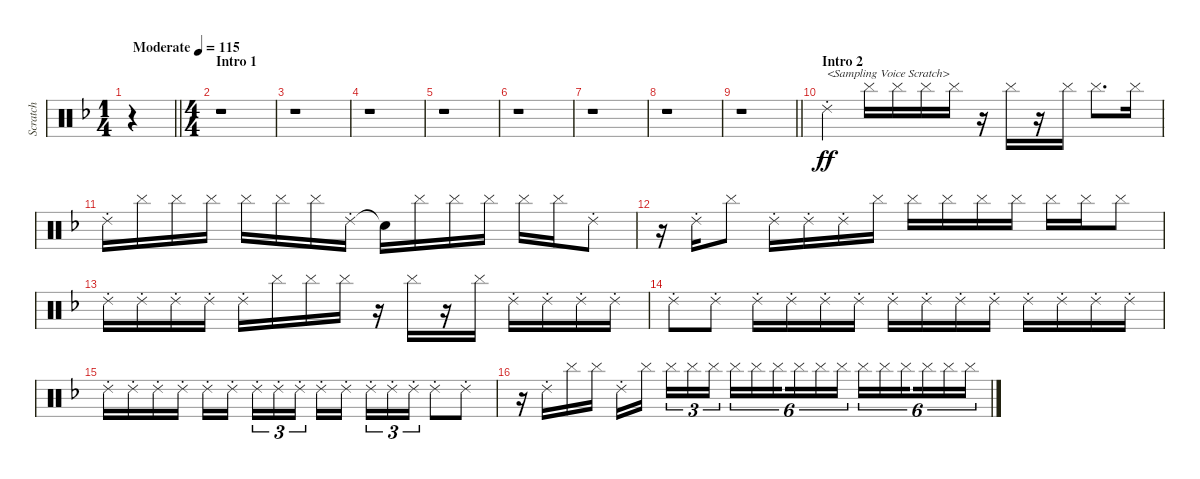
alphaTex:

\track ("Scratch" "Scratch") {instrument percussion}
\staff {score}
\articulation defaults
\ts (1 4)
\tempo (115 "Moderate")
\clef neutral
\barLineRight lightlight
\ks f
r.4{dy ff} |
\ts (4 4)
\section ("" "Intro 1")
r.1 |
r.1 |
r.1 |
r.1 |
r.1 |
r.1 |
r.1 |
\barLineRight lightlight
r.1 |
\section ("" "Intro 2")
"Ride (choke) 2".4{txt "<Sampling Voice Scratch>"} "Cymbal (hit)".16 "Cymbal (hit)".16 "Cymbal (hit)".16 "Cymbal (hit)".16 r.16 "Cymbal (hit)".16 r.16 "Cymbal (hit)".16 "Cymbal (hit)".8{d} "Cymbal (hit)".16 |
"Ride (choke) 2".16 "Cymbal (hit)".16 "Cymbal (hit)".16 "Cymbal (hit)".16 "Cymbal (hit)".16 "Cymbal (hit)".16 "Cymbal (hit)".16 "Ride (choke) 2".16 "Snare (hit)"{t}.16 "Cymbal (hit)".16 "Cymbal (hit)".16 "Cymbal (hit)".16 "Cymbal (hit)".16 "Cymbal (hit)".16 "Ride (choke) 2".8 |
r.16 "Ride (choke) 2".16 "Cymbal (hit)".8 "Ride (choke) 2".16 "Ride (choke) 2".16 "Ride (choke) 2".16 "Cymbal (hit)".16 "Cymbal (hit)".16 "Cymbal (hit)".16 "Cymbal (hit)".16 "Cymbal (hit)".16 "Cymbal (hit)".16 "Cymbal (hit)".16 "Cymbal (hit)".8 |
"Ride (choke) 2".16 "Ride (choke) 2".16 "Ride (choke) 2".16 "Ride (choke) 2".16 "Ride (choke) 2".16 "Cymbal (hit)".16 "Cymbal (hit)".16 "Cymbal (hit)".16 r.16 "Cymbal (hit)".16 r.16 "Cymbal (hit)".16 "Ride (choke) 2".16 "Ride (choke) 2".16 "Ride (choke) 2".16 "Ride (choke) 2".16 |
"Ride (choke) 2".8 "Ride (choke) 2".8 "Ride (choke) 2".16 "Ride (choke) 2".16 "Ride (choke) 2".16 "Ride (choke) 2".16 "Ride (choke) 2".16 "Ride (choke) 2".16 "Ride (choke) 2".16 "Ride (choke) 2".16 "Ride (choke) 2".16 "Ride (choke) 2".16 "Ride (choke) 2".16 "Ride (choke) 2".16 |
"Ride (choke) 2".16 "Ride (choke) 2".16 "Ride (choke) 2".16 "Ride (choke) 2".16 "Ride (choke) 2".16 "Ride (choke) 2".16{beam splitsecondary} "Ride (choke) 2".16{tu (3 2)} "Ride (choke) 2".16{tu (3 2)} "Ride (choke) 2".16{tu (3 2)} "Ride (choke) 2".16 "Ride (choke) 2".16{beam splitsecondary} "Ride (choke) 2".16{tu (3 2)} "Ride (choke) 2".16{tu (3 2)} "Ride (choke) 2".16{tu (3 2)} "Ride (choke) 2".8 "Ride (choke) 2".8 |
r.16 "Ride (choke) 2".16 "Cymbal (hit)".16 "Cymbal (hit)".16 "Ride (choke) 2".16 "Cymbal (hit)".16{beam splitsecondary} "Cymbal (hit)".16{tu (3 2)} "Cymbal (hit)".16{tu (3 2)} "Cymbal (hit)".16{tu (3 2)} "Cymbal (hit)".16{tu (6 4)} "Cymbal (hit)".16{tu (6 4)} "Cymbal (hit)".16{tu (6 4) beam splitsecondary} "Cymbal (hit)".16{tu (6 4)} "Cymbal (hit)".16{tu (6 4)} "Cymbal (hit)".16{tu (6 4)} "Cymbal (hit)".16{tu (6 4)} "Cymbal (hit)".16{tu (6 4)} "Cymbal (hit)".16{tu (6 4) beam splitsecondary} "Cymbal (hit)".16{tu (6 4)} "Cymbal (hit)".16{tu (6 4)} "Cymbal (hit)".16{tu (6 4)}
